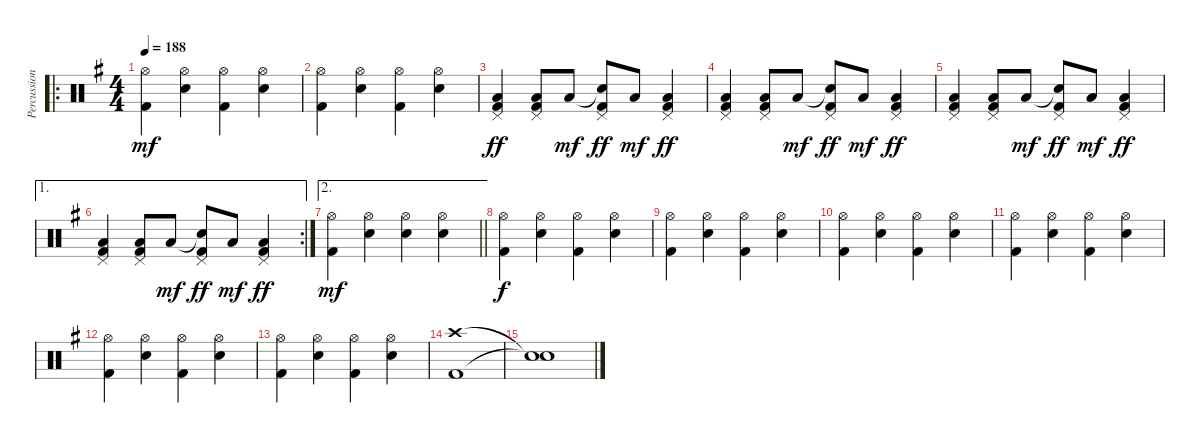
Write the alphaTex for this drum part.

\track ("Percussion" "Percussion") {instrument percussion}
\staff {score}
\articulation defaults
\ro
\ts (4 4)
\tempo 188
\clef neutral
\ks g
("Hi-Hat (open)" "Kick (hit) 2").4{dy mf} ("Hi-Hat (open)" "Snare (hit) 2").4 ("Hi-Hat (open)" "Kick (hit) 2").4 ("Hi-Hat (open)" "Snare (hit) 2").4 |
("Hi-Hat (open)" "Kick (hit) 2").4 ("Hi-Hat (open)" "Snare (hit) 2").4 ("Hi-Hat (open)" "Kick (hit) 2").4 ("Hi-Hat (open)" "Snare (hit) 2").4 |
("Low Tom (hit)" "Kick (hit) 2" "Pedal Hi-Hat (hit)").4{dy ff} ("Low Tom (hit)" "Kick (hit) 2" "Pedal Hi-Hat (hit)").8 "Low Tom (hit)".8{dy mf} ("Snare (hit)"{t} "Kick (hit) 2" "Pedal Hi-Hat (hit)").8{dy ff} "Low Tom (hit)".8{dy mf} ("Low Tom (hit)" "Kick (hit) 2" "Pedal Hi-Hat (hit)").4{dy ff} |
("Low Tom (hit)" "Kick (hit) 2" "Pedal Hi-Hat (hit)").4 ("Low Tom (hit)" "Kick (hit) 2" "Pedal Hi-Hat (hit)").8 "Low Tom (hit)".8{dy mf} ("Snare (hit)"{t} "Kick (hit) 2" "Pedal Hi-Hat (hit)").8{dy ff} "Low Tom (hit)".8{dy mf} ("Low Tom (hit)" "Kick (hit) 2" "Pedal Hi-Hat (hit)").4{dy ff} |
("Low Tom (hit)" "Kick (hit) 2" "Pedal Hi-Hat (hit)").4 ("Low Tom (hit)" "Kick (hit) 2" "Pedal Hi-Hat (hit)").8 "Low Tom (hit)".8{dy mf} ("Snare (hit)"{t} "Kick (hit) 2" "Pedal Hi-Hat (hit)").8{dy ff} "Low Tom (hit)".8{dy mf} ("Low Tom (hit)" "Kick (hit) 2" "Pedal Hi-Hat (hit)").4{dy ff} |
\ae 1
\rc 2
("Low Tom (hit)" "Kick (hit) 2" "Pedal Hi-Hat (hit)").4 ("Low Tom (hit)" "Kick (hit) 2" "Pedal Hi-Hat (hit)").8 "Low Tom (hit)".8{dy mf} ("Snare (hit)"{t} "Kick (hit) 2" "Pedal Hi-Hat (hit)").8{dy ff} "Low Tom (hit)".8{dy mf} ("Low Tom (hit)" "Kick (hit) 2" "Pedal Hi-Hat (hit)").4{dy ff} |
\ae 2
\barLineRight lightlight
("Hi-Hat (open)" "Kick (hit) 2").4{dy mf} ("Hi-Hat (open)" "Snare (hit) 2").4 ("Hi-Hat (open)" "Snare (hit) 2").4 ("Hi-Hat (open)" "Snare (hit) 2").4 |
("Hi-Hat (open)" "Kick (hit) 2").4{dy f} ("Hi-Hat (open)" "Snare (hit) 2").4 ("Hi-Hat (open)" "Kick (hit) 2").4 ("Hi-Hat (open)" "Snare (hit) 2").4 |
("Hi-Hat (open)" "Kick (hit) 2").4 ("Hi-Hat (open)" "Snare (hit) 2").4 ("Hi-Hat (open)" "Kick (hit) 2").4 ("Hi-Hat (open)" "Snare (hit) 2").4 |
("Hi-Hat (open)" "Kick (hit) 2").4 ("Hi-Hat (open)" "Snare (hit) 2").4 ("Hi-Hat (open)" "Kick (hit) 2").4 ("Hi-Hat (open)" "Snare (hit) 2").4 |
("Hi-Hat (open)" "Kick (hit) 2").4 ("Hi-Hat (open)" "Snare (hit) 2").4 ("Hi-Hat (open)" "Kick (hit) 2").4 ("Hi-Hat (open)" "Snare (hit) 2").4 |
("Hi-Hat (open)" "Kick (hit) 2").4 ("Hi-Hat (open)" "Snare (hit) 2").4 ("Hi-Hat (open)" "Kick (hit) 2").4 ("Hi-Hat (open)" "Snare (hit) 2").4 |
("Hi-Hat (open)" "Kick (hit) 2").4 ("Hi-Hat (open)" "Snare (hit) 2").4 ("Hi-Hat (open)" "Kick (hit) 2").4 ("Hi-Hat (open)" "Snare (hit) 2").4 |
("Crash high (hit)" "Kick (hit) 2").1 |
("Snare (hit)"{t} "Snare (hit)"{t}).1
